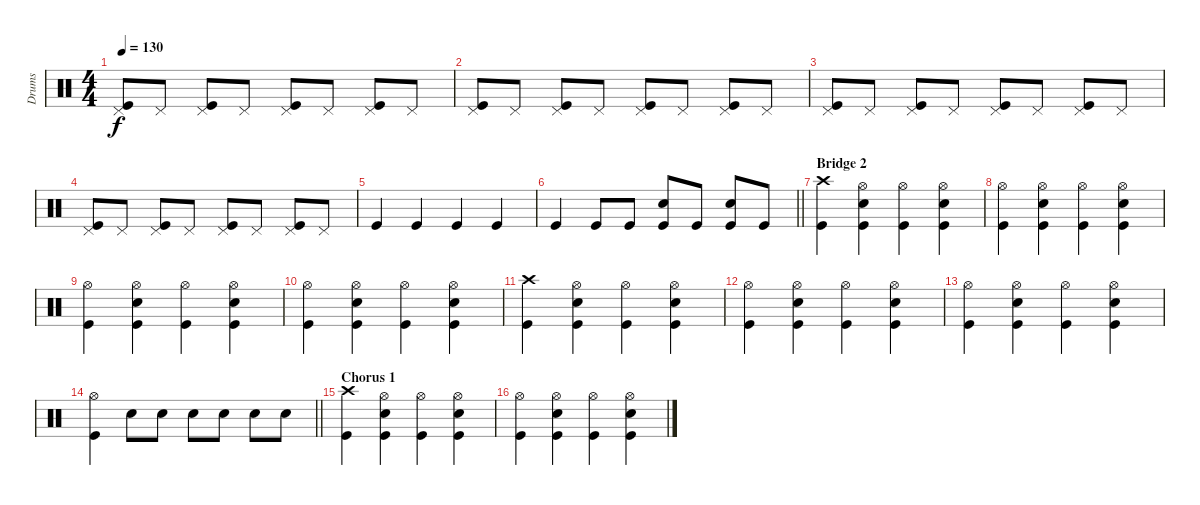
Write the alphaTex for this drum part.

\track ("Drums" "Drums") {instrument percussion}
\staff {score}
\articulation defaults
\ts (4 4)
\tempo 130
\clef neutral
\ks c
("Kick (hit)" "Pedal Hi-Hat (hit)").8{dy f} "Pedal Hi-Hat (hit)".8 ("Kick (hit)" "Pedal Hi-Hat (hit)").8 "Pedal Hi-Hat (hit)".8 ("Kick (hit)" "Pedal Hi-Hat (hit)").8 "Pedal Hi-Hat (hit)".8 ("Kick (hit)" "Pedal Hi-Hat (hit)").8 "Pedal Hi-Hat (hit)".8 |
("Kick (hit)" "Pedal Hi-Hat (hit)").8 "Pedal Hi-Hat (hit)".8 ("Kick (hit)" "Pedal Hi-Hat (hit)").8 "Pedal Hi-Hat (hit)".8 ("Kick (hit)" "Pedal Hi-Hat (hit)").8 "Pedal Hi-Hat (hit)".8 ("Kick (hit)" "Pedal Hi-Hat (hit)").8 "Pedal Hi-Hat (hit)".8 |
("Kick (hit)" "Pedal Hi-Hat (hit)").8 "Pedal Hi-Hat (hit)".8 ("Kick (hit)" "Pedal Hi-Hat (hit)").8 "Pedal Hi-Hat (hit)".8 ("Kick (hit)" "Pedal Hi-Hat (hit)").8 "Pedal Hi-Hat (hit)".8 ("Kick (hit)" "Pedal Hi-Hat (hit)").8 "Pedal Hi-Hat (hit)".8 |
("Kick (hit)" "Pedal Hi-Hat (hit)").8 "Pedal Hi-Hat (hit)".8 ("Kick (hit)" "Pedal Hi-Hat (hit)").8 "Pedal Hi-Hat (hit)".8 ("Kick (hit)" "Pedal Hi-Hat (hit)").8 "Pedal Hi-Hat (hit)".8 ("Kick (hit)" "Pedal Hi-Hat (hit)").8 "Pedal Hi-Hat (hit)".8 |
"Kick (hit)".4 "Kick (hit)".4 "Kick (hit)".4 "Kick (hit)".4 |
\barLineRight lightlight "Kick (hit)".4 "Kick (hit)".8 "Kick (hit)".8
("Snare (hit) 2" "Kick (hit)").8 "Kick (hit)".8 ("Kick (hit)" "Snare (hit) 2").8 "Kick (hit)".8 |
\section ("" "Bridge 2")
("Crash high (hit)" "Kick (hit)").4 ("Kick (hit)" "Snare (hit) 2" "Hi-Hat (open)").4 ("Hi-Hat (open)" "Kick (hit)").4 ("Hi-Hat (open)" "Snare (hit) 2" "Kick (hit)").4 |
("Hi-Hat (open)" "Kick (hit)").4 ("Kick (hit)" "Snare (hit) 2" "Hi-Hat (open)").4 ("Hi-Hat (open)" "Kick (hit)").4 ("Hi-Hat (open)" "Snare (hit) 2" "Kick (hit)").4 |
("Hi-Hat (open)" "Kick (hit)").4 ("Kick (hit)" "Snare (hit) 2" "Hi-Hat (open)").4 ("Hi-Hat (open)" "Kick (hit)").4 ("Hi-Hat (open)" "Snare (hit) 2" "Kick (hit)").4 |
("Hi-Hat (open)" "Kick (hit)").4 ("Kick (hit)" "Snare (hit) 2" "Hi-Hat (open)").4 ("Hi-Hat (open)" "Kick (hit)").4 ("Hi-Hat (open)" "Snare (hit) 2" "Kick (hit)").4 |
("Crash high (hit)" "Kick (hit)").4 ("Kick (hit)" "Snare (hit) 2" "Hi-Hat (open)").4 ("Hi-Hat (open)" "Kick (hit)").4 ("Hi-Hat (open)" "Snare (hit) 2" "Kick (hit)").4 |
("Hi-Hat (open)" "Kick (hit)").4 ("Kick (hit)" "Snare (hit) 2" "Hi-Hat (open)").4 ("Hi-Hat (open)" "Kick (hit)").4 ("Hi-Hat (open)" "Snare (hit) 2" "Kick (hit)").4 |
("Hi-Hat (open)" "Kick (hit)").4 ("Kick (hit)" "Snare (hit) 2" "Hi-Hat (open)").4 ("Hi-Hat (open)" "Kick (hit)").4 ("Hi-Hat (open)" "Snare (hit) 2" "Kick (hit)").4 |
\barLineRight lightlight
("Hi-Hat (open)" "Kick (hit)").4 "Snare (hit) 2".8 "Snare (hit) 2".8 "Snare (hit) 2".8 "Snare (hit) 2".8 "Snare (hit) 2".8 "Snare (hit) 2".8 |
\section ("" "Chorus 1")
("Crash high (hit)" "Kick (hit)").4 ("Kick (hit)" "Snare (hit) 2" "Hi-Hat (open)").4 ("Hi-Hat (open)" "Kick (hit)").4 ("Hi-Hat (open)" "Snare (hit) 2" "Kick (hit)").4 |
("Hi-Hat (open)" "Kick (hit)").4 ("Kick (hit)" "Snare (hit) 2" "Hi-Hat (open)").4 ("Hi-Hat (open)" "Kick (hit)").4 ("Hi-Hat (open)" "Snare (hit) 2" "Kick (hit)").4
